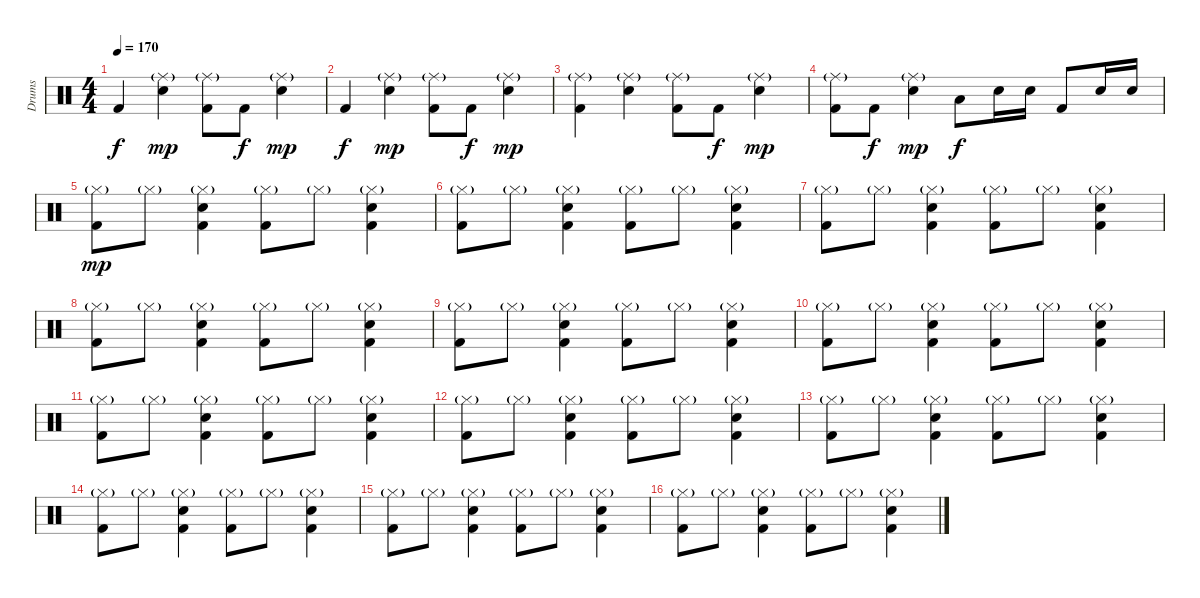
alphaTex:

\track ("Drums" "Drums") {instrument percussion}
\staff {score}
\articulation defaults
\ts (4 4)
\tempo 170
\clef neutral
\ks c "Kick (hit) 2".4{dy f}
("Ride (middle)"{g} "Electric Snare (hit)").4{dy mp} ("Ride (middle)"{g} "Kick (hit) 2").8 "Kick (hit) 2".8{dy f} ("Ride (middle)"{g} "Electric Snare (hit)").4{dy mp} |
"Kick (hit) 2".4{dy f} ("Ride (middle)"{g} "Electric Snare (hit)").4{dy mp} ("Ride (middle)"{g} "Kick (hit) 2").8 "Kick (hit) 2".8{dy f} ("Ride (middle)"{g} "Electric Snare (hit)").4{dy mp} |
("Ride (middle)"{g} "Kick (hit) 2").4 ("Ride (middle)"{g} "Electric Snare (hit)").4 ("Ride (middle)"{g} "Kick (hit) 2").8 "Kick (hit) 2".8{dy f} ("Ride (middle)"{g} "Electric Snare (hit)").4{dy mp} |
("Ride (middle)"{g} "Kick (hit) 2").8 "Kick (hit) 2".8{dy f} ("Ride (middle)"{g} "Electric Snare (hit)").4{dy mp} "Low Floor Tom (hit)".8{dy f} "Electric Snare (hit)".16 "Electric Snare (hit)".16 "Kick (hit) 2".8 "Electric Snare (hit)".16 "Electric Snare (hit)".16 |
("Hi-Hat (closed)"{g} "Kick (hit) 2").8{dy mp} "Hi-Hat (closed)"{g}.8 ("Hi-Hat (closed)"{g} "Electric Snare (hit)" "Kick (hit) 2").4 ("Hi-Hat (closed)"{g} "Kick (hit) 2").8 "Hi-Hat (closed)"{g}.8 ("Hi-Hat (closed)"{g} "Electric Snare (hit)" "Kick (hit) 2").4 |
("Hi-Hat (closed)"{g} "Kick (hit) 2").8 "Hi-Hat (closed)"{g}.8 ("Hi-Hat (closed)"{g} "Electric Snare (hit)" "Kick (hit) 2").4 ("Hi-Hat (closed)"{g} "Kick (hit) 2").8 "Hi-Hat (closed)"{g}.8 ("Hi-Hat (closed)"{g} "Electric Snare (hit)" "Kick (hit) 2").4 |
("Hi-Hat (closed)"{g} "Kick (hit) 2").8 "Hi-Hat (closed)"{g}.8 ("Hi-Hat (closed)"{g} "Electric Snare (hit)" "Kick (hit) 2").4 ("Hi-Hat (closed)"{g} "Kick (hit) 2").8 "Hi-Hat (closed)"{g}.8 ("Hi-Hat (closed)"{g} "Electric Snare (hit)" "Kick (hit) 2").4 |
("Hi-Hat (closed)"{g} "Kick (hit) 2").8 "Hi-Hat (closed)"{g}.8 ("Hi-Hat (closed)"{g} "Electric Snare (hit)" "Kick (hit) 2").4 ("Hi-Hat (closed)"{g} "Kick (hit) 2").8 "Hi-Hat (closed)"{g}.8 ("Hi-Hat (closed)"{g} "Electric Snare (hit)" "Kick (hit) 2").4 |
("Hi-Hat (closed)"{g} "Kick (hit) 2").8 "Hi-Hat (closed)"{g}.8 ("Hi-Hat (closed)"{g} "Electric Snare (hit)" "Kick (hit) 2").4 ("Hi-Hat (closed)"{g} "Kick (hit) 2").8 "Hi-Hat (closed)"{g}.8 ("Hi-Hat (closed)"{g} "Electric Snare (hit)" "Kick (hit) 2").4 |
("Hi-Hat (closed)"{g} "Kick (hit) 2").8 "Hi-Hat (closed)"{g}.8 ("Hi-Hat (closed)"{g} "Electric Snare (hit)" "Kick (hit) 2").4 ("Hi-Hat (closed)"{g} "Kick (hit) 2").8 "Hi-Hat (closed)"{g}.8 ("Hi-Hat (closed)"{g} "Electric Snare (hit)" "Kick (hit) 2").4 |
("Hi-Hat (closed)"{g} "Kick (hit) 2").8 "Hi-Hat (closed)"{g}.8 ("Hi-Hat (closed)"{g} "Electric Snare (hit)" "Kick (hit) 2").4 ("Hi-Hat (closed)"{g} "Kick (hit) 2").8 "Hi-Hat (closed)"{g}.8 ("Hi-Hat (closed)"{g} "Electric Snare (hit)" "Kick (hit) 2").4 |
("Hi-Hat (closed)"{g} "Kick (hit) 2").8 "Hi-Hat (closed)"{g}.8 ("Hi-Hat (closed)"{g} "Electric Snare (hit)" "Kick (hit) 2").4 ("Hi-Hat (closed)"{g} "Kick (hit) 2").8 "Hi-Hat (closed)"{g}.8 ("Hi-Hat (closed)"{g} "Electric Snare (hit)" "Kick (hit) 2").4 |
("Hi-Hat (closed)"{g} "Kick (hit) 2").8 "Hi-Hat (closed)"{g}.8 ("Hi-Hat (closed)"{g} "Electric Snare (hit)" "Kick (hit) 2").4 ("Hi-Hat (closed)"{g} "Kick (hit) 2").8 "Hi-Hat (closed)"{g}.8 ("Hi-Hat (closed)"{g} "Electric Snare (hit)" "Kick (hit) 2").4 |
("Hi-Hat (closed)"{g} "Kick (hit) 2").8 "Hi-Hat (closed)"{g}.8 ("Hi-Hat (closed)"{g} "Electric Snare (hit)" "Kick (hit) 2").4 ("Hi-Hat (closed)"{g} "Kick (hit) 2").8 "Hi-Hat (closed)"{g}.8 ("Hi-Hat (closed)"{g} "Electric Snare (hit)" "Kick (hit) 2").4 |
("Hi-Hat (closed)"{g} "Kick (hit) 2").8 "Hi-Hat (closed)"{g}.8 ("Hi-Hat (closed)"{g} "Electric Snare (hit)" "Kick (hit) 2").4 ("Hi-Hat (closed)"{g} "Kick (hit) 2").8 "Hi-Hat (closed)"{g}.8 ("Hi-Hat (closed)"{g} "Electric Snare (hit)" "Kick (hit) 2").4 |
("Hi-Hat (closed)"{g} "Kick (hit) 2").8 "Hi-Hat (closed)"{g}.8 ("Hi-Hat (closed)"{g} "Electric Snare (hit)" "Kick (hit) 2").4 ("Hi-Hat (closed)"{g} "Kick (hit) 2").8 "Hi-Hat (closed)"{g}.8 ("Hi-Hat (closed)"{g} "Electric Snare (hit)" "Kick (hit) 2").4
